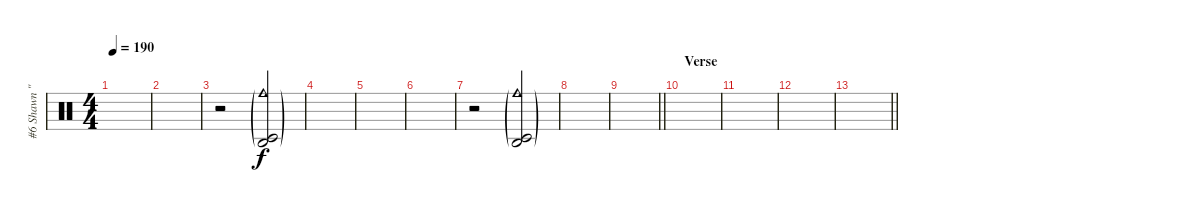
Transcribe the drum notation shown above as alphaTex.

\track ("#6 Shawn \"Clown\" Crahan" "#6 Shawn \"") {instrument percussion}
\staff {score}
\articulation defaults
\ts (4 4)
\tempo 190
\clef neutral
\ks c
|
|
r.2 ("Cowbell medium (hit)"{g} "Timbale low (hit)"{g} "Agogo high (hit)"{g}).2 |
|
|
|
r.2 ("Cowbell medium (hit)"{g} "Timbale low (hit)"{g} "Agogo high (hit)"{g}).2 |
|
\barLineRight lightlight
|
\section ("" "Verse")
|
|
|
\barLineRight lightlight
